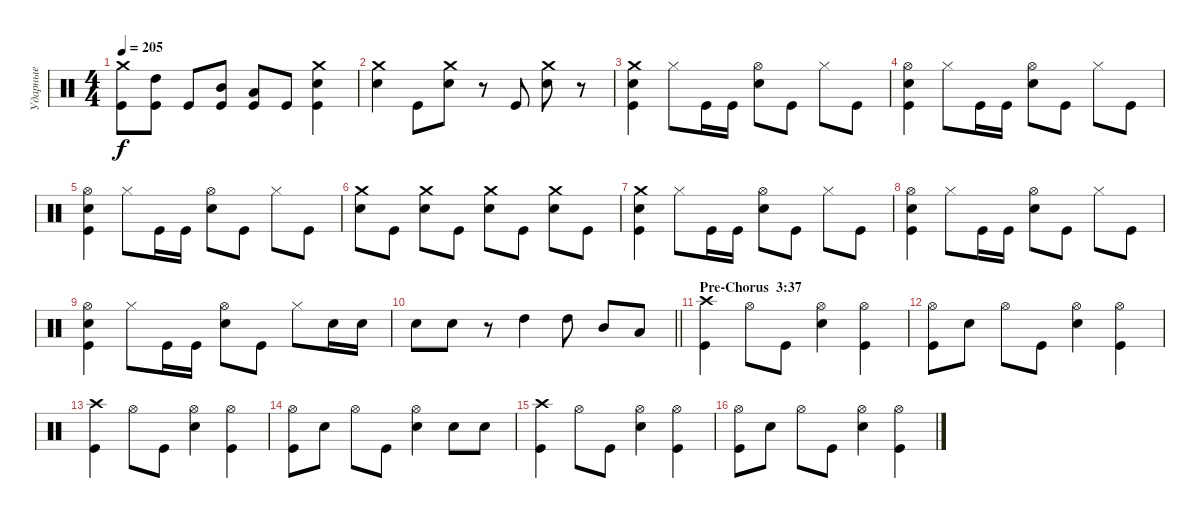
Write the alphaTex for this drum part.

\track ("Ударные" "Ударные") {instrument percussion}
\staff {score}
\articulation defaults
\ts (4 4)
\tempo 205
\clef neutral
\ks c
("Crash medium (hit)" "Kick (hit)").8{dy f} ("High Tom (hit)" "Kick (hit)").8 "Kick (hit)".8 ("Mid Tom (hit)" "Kick (hit)").8 ("Low Tom (hit)" "Kick (hit)").8 "Kick (hit)".8 ("Crash medium (hit)" "Snare (hit) 2" "Kick (hit)").4 |
("Crash medium (hit)" "Snare (hit) 2").4 "Kick (hit)".8 ("Crash medium (hit)" "Snare (hit) 2").8 r.8 "Kick (hit)".8 ("Crash medium (hit)" "Snare (hit) 2").8 r.8 |
("Crash medium (hit)" "Snare (hit) 2" "Kick (hit)").4 "Hi-Hat (closed)".8 "Kick (hit)".16 "Kick (hit)".16 ("Hi-Hat (open)" "Snare (hit) 2").8 "Kick (hit)".8 "Hi-Hat (closed)".8 "Kick (hit)".8 |
("Hi-Hat (open)" "Snare (hit) 2" "Kick (hit)").4 "Hi-Hat (closed)".8 "Kick (hit)".16 "Kick (hit)".16 ("Hi-Hat (open)" "Snare (hit) 2").8 "Kick (hit)".8 "Hi-Hat (closed)".8 "Kick (hit)".8 |
("Hi-Hat (open)" "Snare (hit) 2" "Kick (hit)").4 "Hi-Hat (closed)".8 "Kick (hit)".16 "Kick (hit)".16 ("Hi-Hat (open)" "Snare (hit) 2").8 "Kick (hit)".8 "Hi-Hat (closed)".8 "Kick (hit)".8 |
("Crash medium (hit)" "Snare (hit) 2").8 "Kick (hit)".8 ("Crash medium (hit)" "Snare (hit) 2").8 "Kick (hit)".8 ("Crash medium (hit)" "Snare (hit) 2").8 "Kick (hit)".8 ("Crash medium (hit)" "Snare (hit) 2").8 "Kick (hit)".8 |
("Crash medium (hit)" "Snare (hit) 2" "Kick (hit)").4 "Hi-Hat (closed)".8 "Kick (hit)".16 "Kick (hit)".16 ("Hi-Hat (open)" "Snare (hit) 2").8 "Kick (hit)".8 "Hi-Hat (closed)".8 "Kick (hit)".8 |
("Hi-Hat (open)" "Snare (hit) 2" "Kick (hit)").4 "Hi-Hat (closed)".8 "Kick (hit)".16 "Kick (hit)".16 ("Hi-Hat (open)" "Snare (hit) 2").8 "Kick (hit)".8 "Hi-Hat (closed)".8 "Kick (hit)".8 |
("Hi-Hat (open)" "Snare (hit) 2" "Kick (hit)").4 "Hi-Hat (closed)".8 "Kick (hit)".16 "Kick (hit)".16 ("Hi-Hat (open)" "Snare (hit) 2").8 "Kick (hit)".8 "Hi-Hat (closed)".8 "Snare (hit) 2".16 "Snare (hit) 2".16 |
\barLineRight lightlight "Snare (hit) 2".8 "Snare (hit) 2".8
r.8 "High Tom (hit)".4 "High Tom (hit)".8 "Mid Tom (hit)".8 "Low Tom (hit)".8 |
\section ("" "Pre-Chorus  3:37")
("Crash high (hit)" "Kick (hit)").4 "Hi-Hat (open)".8 "Kick (hit)".8 ("Hi-Hat (open)" "Snare (hit) 2").4 ("Hi-Hat (open)" "Kick (hit)").4 |
("Hi-Hat (open)" "Kick (hit)").8 "Snare (hit) 2".8 "Hi-Hat (open)".8 "Kick (hit)".8 ("Hi-Hat (open)" "Snare (hit) 2").4 ("Hi-Hat (open)" "Kick (hit)").4 |
("Crash high (hit)" "Kick (hit)").4 "Hi-Hat (open)".8 "Kick (hit)".8 ("Hi-Hat (open)" "Snare (hit) 2").4 ("Hi-Hat (open)" "Kick (hit)").4 |
("Hi-Hat (open)" "Kick (hit)").8 "Snare (hit) 2".8 "Hi-Hat (open)".8 "Kick (hit)".8 ("Hi-Hat (open)" "Snare (hit) 2").4 "Snare (hit) 2".8 "Snare (hit) 2".8 |
("Crash high (hit)" "Kick (hit)").4 "Hi-Hat (open)".8 "Kick (hit)".8 ("Hi-Hat (open)" "Snare (hit) 2").4 ("Hi-Hat (open)" "Kick (hit)").4 |
("Hi-Hat (open)" "Kick (hit)").8 "Snare (hit) 2".8 "Hi-Hat (open)".8 "Kick (hit)".8 ("Hi-Hat (open)" "Snare (hit) 2").4 ("Hi-Hat (open)" "Kick (hit)").4
